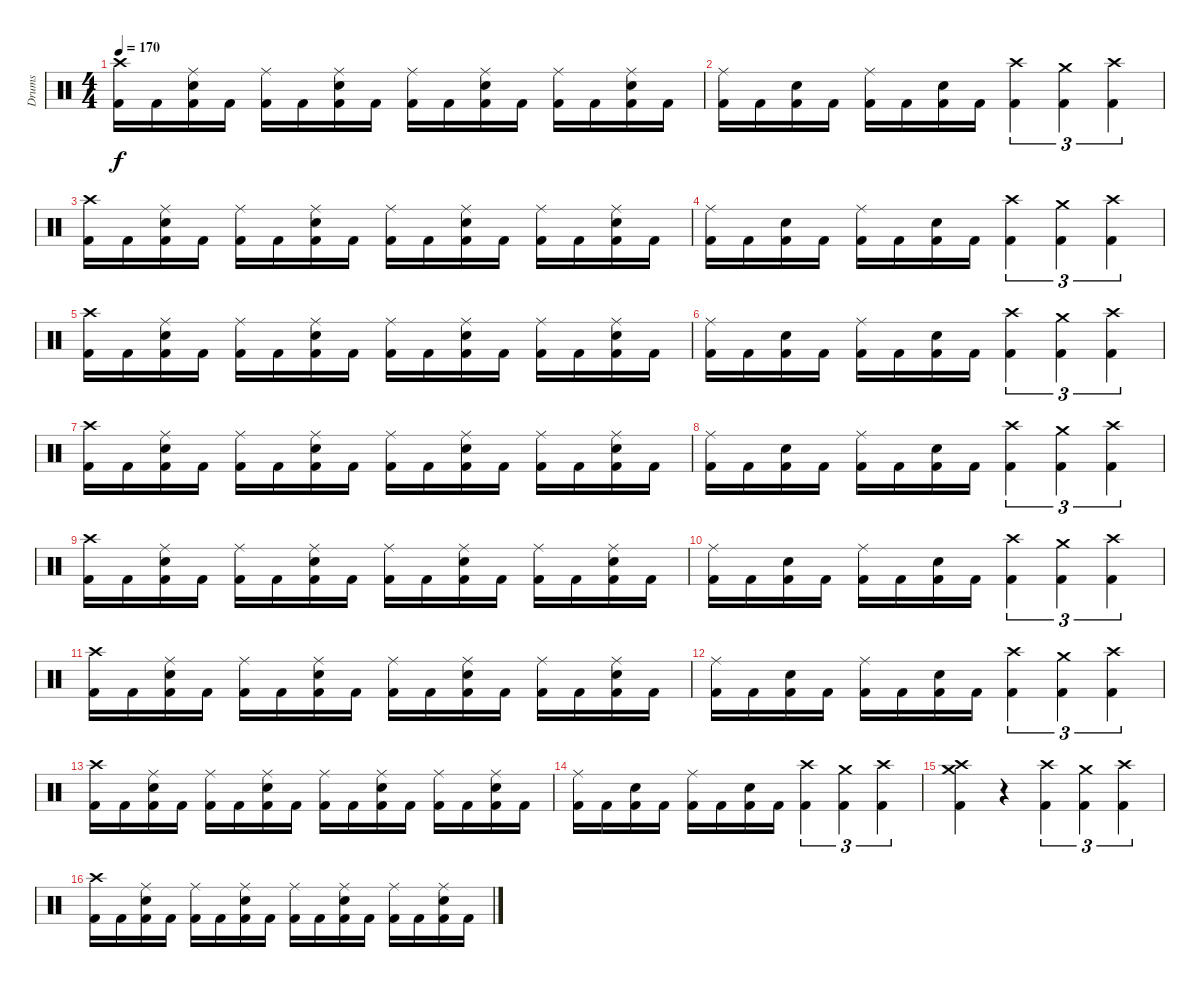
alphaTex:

\track ("Drums" "Drums") {instrument percussion}
\staff {score}
\articulation defaults
\ts (4 4)
\tempo 170
\clef neutral
\ks c
("Crash high (hit)" "Kick (hit) 2").16{dy f} "Kick (hit) 2".16 ("Ride (middle)" "Snare (hit) 2" "Kick (hit) 2").16 "Kick (hit) 2".16 ("Ride (middle)" "Kick (hit) 2").16 "Kick (hit) 2".16 ("Ride (middle)" "Snare (hit) 2" "Kick (hit) 2").16 "Kick (hit) 2".16 ("Ride (middle)" "Kick (hit) 2").16 "Kick (hit) 2".16 ("Ride (middle)" "Snare (hit) 2" "Kick (hit) 2").16 "Kick (hit) 2".16 ("Ride (middle)" "Kick (hit) 2").16 "Kick (hit) 2".16 ("Ride (middle)" "Snare (hit) 2" "Kick (hit) 2").16 "Kick (hit) 2".16 |
("Ride (middle)" "Kick (hit) 2").16 "Kick (hit) 2".16 ("Snare (hit) 2" "Kick (hit) 2").16 "Kick (hit) 2".16 ("Ride (middle)" "Kick (hit) 2").16 "Kick (hit) 2".16 ("Snare (hit) 2" "Kick (hit) 2").16 "Kick (hit) 2".16 ("Crash high (hit)" "Kick (hit) 2").4{tu (3 2)} ("Crash medium (hit)" "Kick (hit) 2").4{tu (3 2)} ("Crash high (hit)" "Kick (hit) 2").4{tu (3 2)} |
("Crash high (hit)" "Kick (hit) 2").16 "Kick (hit) 2".16 ("Ride (middle)" "Snare (hit) 2" "Kick (hit) 2").16 "Kick (hit) 2".16 ("Ride (middle)" "Kick (hit) 2").16 "Kick (hit) 2".16 ("Ride (middle)" "Snare (hit) 2" "Kick (hit) 2").16 "Kick (hit) 2".16 ("Ride (middle)" "Kick (hit) 2").16 "Kick (hit) 2".16 ("Ride (middle)" "Snare (hit) 2" "Kick (hit) 2").16 "Kick (hit) 2".16 ("Ride (middle)" "Kick (hit) 2").16 "Kick (hit) 2".16 ("Ride (middle)" "Snare (hit) 2" "Kick (hit) 2").16 "Kick (hit) 2".16 |
("Ride (middle)" "Kick (hit) 2").16 "Kick (hit) 2".16 ("Snare (hit) 2" "Kick (hit) 2").16 "Kick (hit) 2".16 ("Ride (middle)" "Kick (hit) 2").16 "Kick (hit) 2".16 ("Snare (hit) 2" "Kick (hit) 2").16 "Kick (hit) 2".16 ("Crash high (hit)" "Kick (hit) 2").4{tu (3 2)} ("Crash medium (hit)" "Kick (hit) 2").4{tu (3 2)} ("Crash high (hit)" "Kick (hit) 2").4{tu (3 2)} |
("Crash high (hit)" "Kick (hit) 2").16 "Kick (hit) 2".16 ("Ride (middle)" "Snare (hit) 2" "Kick (hit) 2").16 "Kick (hit) 2".16 ("Ride (middle)" "Kick (hit) 2").16 "Kick (hit) 2".16 ("Ride (middle)" "Snare (hit) 2" "Kick (hit) 2").16 "Kick (hit) 2".16 ("Ride (middle)" "Kick (hit) 2").16 "Kick (hit) 2".16 ("Ride (middle)" "Snare (hit) 2" "Kick (hit) 2").16 "Kick (hit) 2".16 ("Ride (middle)" "Kick (hit) 2").16 "Kick (hit) 2".16 ("Ride (middle)" "Snare (hit) 2" "Kick (hit) 2").16 "Kick (hit) 2".16 |
("Ride (middle)" "Kick (hit) 2").16 "Kick (hit) 2".16 ("Snare (hit) 2" "Kick (hit) 2").16 "Kick (hit) 2".16 ("Ride (middle)" "Kick (hit) 2").16 "Kick (hit) 2".16 ("Snare (hit) 2" "Kick (hit) 2").16 "Kick (hit) 2".16 ("Crash high (hit)" "Kick (hit) 2").4{tu (3 2)} ("Crash medium (hit)" "Kick (hit) 2").4{tu (3 2)} ("Crash high (hit)" "Kick (hit) 2").4{tu (3 2)} |
("Crash high (hit)" "Kick (hit) 2").16 "Kick (hit) 2".16 ("Ride (middle)" "Snare (hit) 2" "Kick (hit) 2").16 "Kick (hit) 2".16 ("Ride (middle)" "Kick (hit) 2").16 "Kick (hit) 2".16 ("Ride (middle)" "Snare (hit) 2" "Kick (hit) 2").16 "Kick (hit) 2".16 ("Ride (middle)" "Kick (hit) 2").16 "Kick (hit) 2".16 ("Ride (middle)" "Snare (hit) 2" "Kick (hit) 2").16 "Kick (hit) 2".16 ("Ride (middle)" "Kick (hit) 2").16 "Kick (hit) 2".16 ("Ride (middle)" "Snare (hit) 2" "Kick (hit) 2").16 "Kick (hit) 2".16 |
("Ride (middle)" "Kick (hit) 2").16 "Kick (hit) 2".16 ("Snare (hit) 2" "Kick (hit) 2").16 "Kick (hit) 2".16 ("Ride (middle)" "Kick (hit) 2").16 "Kick (hit) 2".16 ("Snare (hit) 2" "Kick (hit) 2").16 "Kick (hit) 2".16 ("Crash high (hit)" "Kick (hit) 2").4{tu (3 2)} ("Crash medium (hit)" "Kick (hit) 2").4{tu (3 2)} ("Crash high (hit)" "Kick (hit) 2").4{tu (3 2)} |
("Crash high (hit)" "Kick (hit) 2").16 "Kick (hit) 2".16 ("Ride (middle)" "Snare (hit) 2" "Kick (hit) 2").16 "Kick (hit) 2".16 ("Ride (middle)" "Kick (hit) 2").16 "Kick (hit) 2".16 ("Ride (middle)" "Snare (hit) 2" "Kick (hit) 2").16 "Kick (hit) 2".16 ("Ride (middle)" "Kick (hit) 2").16 "Kick (hit) 2".16 ("Ride (middle)" "Snare (hit) 2" "Kick (hit) 2").16 "Kick (hit) 2".16 ("Ride (middle)" "Kick (hit) 2").16 "Kick (hit) 2".16 ("Ride (middle)" "Snare (hit) 2" "Kick (hit) 2").16 "Kick (hit) 2".16 |
("Ride (middle)" "Kick (hit) 2").16 "Kick (hit) 2".16 ("Snare (hit) 2" "Kick (hit) 2").16 "Kick (hit) 2".16 ("Ride (middle)" "Kick (hit) 2").16 "Kick (hit) 2".16 ("Snare (hit) 2" "Kick (hit) 2").16 "Kick (hit) 2".16 ("Crash high (hit)" "Kick (hit) 2").4{tu (3 2)} ("Crash medium (hit)" "Kick (hit) 2").4{tu (3 2)} ("Crash high (hit)" "Kick (hit) 2").4{tu (3 2)} |
("Crash high (hit)" "Kick (hit) 2").16 "Kick (hit) 2".16 ("Ride (middle)" "Snare (hit) 2" "Kick (hit) 2").16 "Kick (hit) 2".16 ("Ride (middle)" "Kick (hit) 2").16 "Kick (hit) 2".16 ("Ride (middle)" "Snare (hit) 2" "Kick (hit) 2").16 "Kick (hit) 2".16 ("Ride (middle)" "Kick (hit) 2").16 "Kick (hit) 2".16 ("Ride (middle)" "Snare (hit) 2" "Kick (hit) 2").16 "Kick (hit) 2".16 ("Ride (middle)" "Kick (hit) 2").16 "Kick (hit) 2".16 ("Ride (middle)" "Snare (hit) 2" "Kick (hit) 2").16 "Kick (hit) 2".16 |
("Ride (middle)" "Kick (hit) 2").16 "Kick (hit) 2".16 ("Snare (hit) 2" "Kick (hit) 2").16 "Kick (hit) 2".16 ("Ride (middle)" "Kick (hit) 2").16 "Kick (hit) 2".16 ("Snare (hit) 2" "Kick (hit) 2").16 "Kick (hit) 2".16 ("Crash high (hit)" "Kick (hit) 2").4{tu (3 2)} ("Crash medium (hit)" "Kick (hit) 2").4{tu (3 2)} ("Crash high (hit)" "Kick (hit) 2").4{tu (3 2)} |
("Crash high (hit)" "Kick (hit) 2").16 "Kick (hit) 2".16 ("Ride (middle)" "Snare (hit) 2" "Kick (hit) 2").16 "Kick (hit) 2".16 ("Ride (middle)" "Kick (hit) 2").16 "Kick (hit) 2".16 ("Ride (middle)" "Snare (hit) 2" "Kick (hit) 2").16 "Kick (hit) 2".16 ("Ride (middle)" "Kick (hit) 2").16 "Kick (hit) 2".16 ("Ride (middle)" "Snare (hit) 2" "Kick (hit) 2").16 "Kick (hit) 2".16 ("Ride (middle)" "Kick (hit) 2").16 "Kick (hit) 2".16 ("Ride (middle)" "Snare (hit) 2" "Kick (hit) 2").16 "Kick (hit) 2".16 |
("Ride (middle)" "Kick (hit) 2").16 "Kick (hit) 2".16 ("Snare (hit) 2" "Kick (hit) 2").16 "Kick (hit) 2".16 ("Ride (middle)" "Kick (hit) 2").16 "Kick (hit) 2".16 ("Snare (hit) 2" "Kick (hit) 2").16 "Kick (hit) 2".16 ("Crash high (hit)" "Kick (hit) 2").4{tu (3 2)} ("Crash medium (hit)" "Kick (hit) 2").4{tu (3 2)} ("Crash high (hit)" "Kick (hit) 2").4{tu (3 2)} |
("Crash medium (hit)" "Crash high (hit)" "Kick (hit) 2").4 r.4 ("Crash high (hit)" "Kick (hit) 2").4{tu (3 2)} ("Crash medium (hit)" "Kick (hit) 2").4{tu (3 2)} ("Crash high (hit)" "Kick (hit) 2").4{tu (3 2)} |
("Crash high (hit)" "Kick (hit) 2").16 "Kick (hit) 2".16 ("Ride (middle)" "Snare (hit) 2" "Kick (hit) 2").16 "Kick (hit) 2".16 ("Ride (middle)" "Kick (hit) 2").16 "Kick (hit) 2".16 ("Ride (middle)" "Snare (hit) 2" "Kick (hit) 2").16 "Kick (hit) 2".16 ("Ride (middle)" "Kick (hit) 2").16 "Kick (hit) 2".16 ("Ride (middle)" "Snare (hit) 2" "Kick (hit) 2").16 "Kick (hit) 2".16 ("Ride (middle)" "Kick (hit) 2").16 "Kick (hit) 2".16 ("Ride (middle)" "Snare (hit) 2" "Kick (hit) 2").16 "Kick (hit) 2".16
